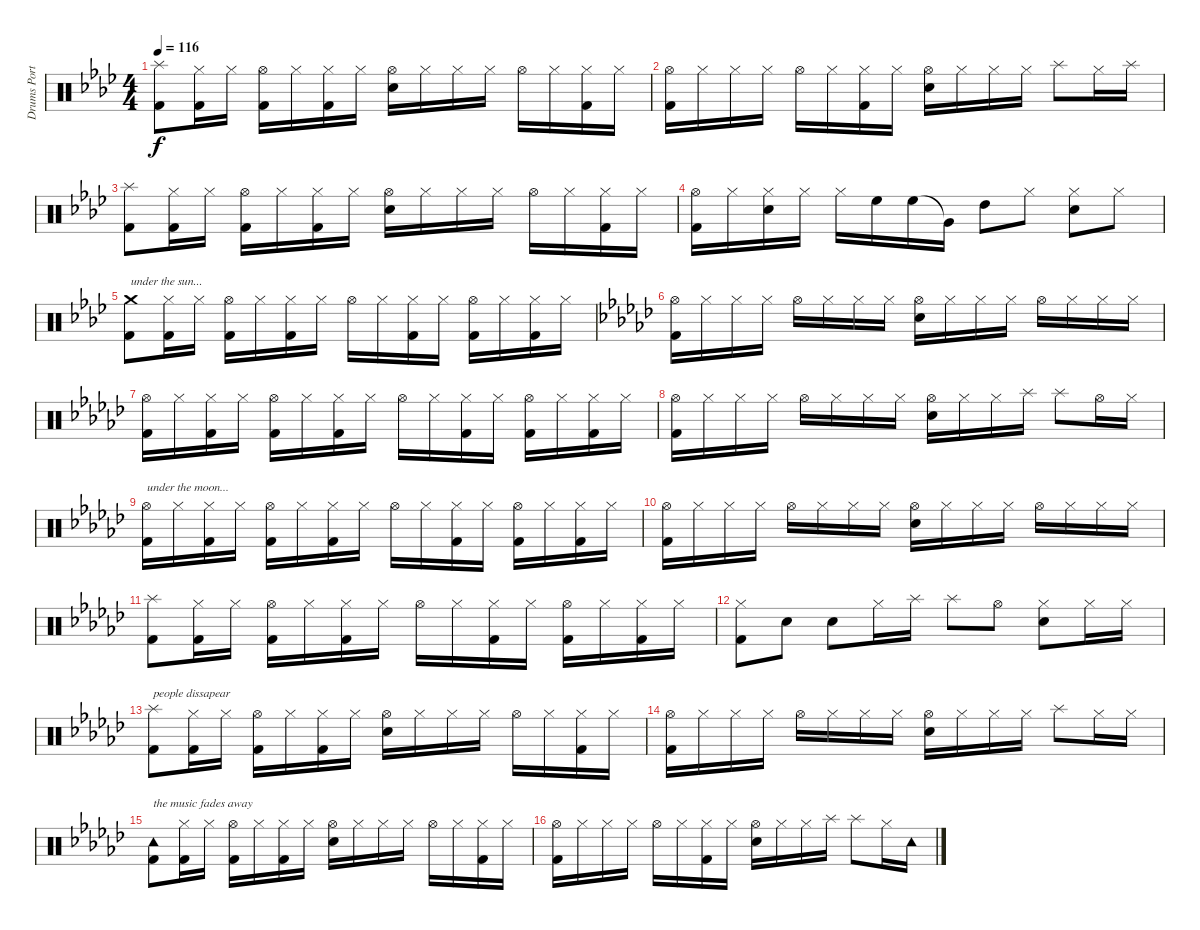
\track ("Drums Portnoy" "Drums Port") {instrument percussion}
\staff {score}
\articulation defaults
\ts (4 4)
\tempo 116
\clef neutral
\ks ab
("Splash (hit)" "Kick (hit) 2").8{dy f} ("Hi-Hat (closed)" "Kick (hit) 2").16 "Hi-Hat (closed)".16 ("Hi-Hat (open)" "Kick (hit) 2").16 "Hi-Hat (closed)".16 ("Hi-Hat (closed)" "Kick (hit) 2").16 "Hi-Hat (closed)".16 ("Hi-Hat (open)" "Snare (hit) 2").16 "Hi-Hat (closed)".16 "Hi-Hat (closed)".16 "Hi-Hat (closed)".16 "Hi-Hat (open)".16 "Hi-Hat (closed)".16 ("Hi-Hat (closed)" "Kick (hit) 2").16 "Hi-Hat (closed)".16 |
("Hi-Hat (open)" "Kick (hit) 2").16 "Hi-Hat (closed)".16 "Hi-Hat (closed)".16 "Hi-Hat (closed)".16 "Hi-Hat (open)".16 "Hi-Hat (closed)".16 ("Hi-Hat (closed)" "Kick (hit) 2").16 "Hi-Hat (closed)".16 ("Hi-Hat (open)" "Snare (hit) 2").16 "Hi-Hat (closed)".16 "Hi-Hat (closed)".16 "Hi-Hat (closed)".16 "Splash (hit)".8 "Hi-Hat (closed)".16 "Splash (hit)".16 |
("Splash (hit)" "Kick (hit) 2").8 ("Hi-Hat (closed)" "Kick (hit) 2").16 "Hi-Hat (closed)".16 ("Hi-Hat (open)" "Kick (hit) 2").16 "Hi-Hat (closed)".16 ("Hi-Hat (closed)" "Kick (hit) 2").16 "Hi-Hat (closed)".16 ("Hi-Hat (open)" "Snare (hit) 2").16 "Hi-Hat (closed)".16 "Hi-Hat (closed)".16 "Hi-Hat (closed)".16 "Hi-Hat (open)".16 "Hi-Hat (closed)".16 ("Hi-Hat (closed)" "Kick (hit) 2").16 "Hi-Hat (closed)".16 |
("Hi-Hat (open)" "Kick (hit) 2").16 "Hi-Hat (closed)".16 ("Hi-Hat (closed)" "Snare (hit) 2").16 "Hi-Hat (closed)".16 "Hi-Hat (closed)".16 "High Floor Tom (hit)".16 "High Floor Tom (hit)".16 "Very Low Tom (hit)"{t}.16 "High Tom (hit)".8 "Hi-Hat (closed)".8 ("Hi-Hat (closed)" "Snare (hit) 2").8 "Hi-Hat (closed)".8 |
("Crash medium (hit)" "Kick (hit) 2").8{txt "under the sun..."} ("Hi-Hat (closed)" "Kick (hit) 2").16 "Hi-Hat (closed)".16 ("Hi-Hat (open)" "Kick (hit) 2").16 "Hi-Hat (closed)".16 ("Hi-Hat (closed)" "Kick (hit) 2").16 "Hi-Hat (closed)".16 "Hi-Hat (open)".16 "Hi-Hat (closed)".16 ("Hi-Hat (closed)" "Kick (hit) 2").16 "Hi-Hat (closed)".16 ("Hi-Hat (open)" "Kick (hit) 2").16 "Hi-Hat (closed)".16 ("Hi-Hat (closed)" "Kick (hit) 2").16 "Hi-Hat (closed)".16 |
\ks gb
("Hi-Hat (open)" "Kick (hit) 2").16 "Hi-Hat (closed)".16 "Hi-Hat (closed)".16 "Hi-Hat (closed)".16 "Hi-Hat (open)".16 "Hi-Hat (closed)".16 "Hi-Hat (closed)".16 "Hi-Hat (closed)".16 ("Hi-Hat (open)" "Snare (hit) 2").16 "Hi-Hat (closed)".16 "Hi-Hat (closed)".16 "Hi-Hat (closed)".16 "Hi-Hat (open)".16 "Hi-Hat (closed)".16 "Hi-Hat (closed)".16 "Hi-Hat (closed)".16 |
("Hi-Hat (open)" "Kick (hit) 2").16 "Hi-Hat (closed)".16 ("Hi-Hat (closed)" "Kick (hit) 2").16 "Hi-Hat (closed)".16 ("Hi-Hat (open)" "Kick (hit) 2").16 "Hi-Hat (closed)".16 ("Hi-Hat (closed)" "Kick (hit) 2").16 "Hi-Hat (closed)".16 "Hi-Hat (open)".16 "Hi-Hat (closed)".16 ("Hi-Hat (closed)" "Kick (hit) 2").16 "Hi-Hat (closed)".16 ("Hi-Hat (open)" "Kick (hit) 2").16 "Hi-Hat (closed)".16 ("Hi-Hat (closed)" "Kick (hit) 2").16 "Hi-Hat (closed)".16 |
("Hi-Hat (open)" "Kick (hit) 2").16 "Hi-Hat (closed)".16 "Hi-Hat (closed)".16 "Hi-Hat (closed)".16 "Hi-Hat (open)".16 "Hi-Hat (closed)".16 "Hi-Hat (closed)".16 "Hi-Hat (closed)".16 ("Hi-Hat (open)" "Snare (hit) 2").16 "Hi-Hat (closed)".16 "Hi-Hat (closed)".16 "Splash (hit)".16 "Splash (hit)".8 "Hi-Hat (open)".16 "Hi-Hat (closed)".16 |
("Hi-Hat (open)" "Kick (hit) 2").16{txt "under the moon..."} "Hi-Hat (closed)".16 ("Hi-Hat (closed)" "Kick (hit) 2").16 "Hi-Hat (closed)".16 ("Hi-Hat (open)" "Kick (hit) 2").16 "Hi-Hat (closed)".16 ("Hi-Hat (closed)" "Kick (hit) 2").16 "Hi-Hat (closed)".16 "Hi-Hat (open)".16 "Hi-Hat (closed)".16 ("Hi-Hat (closed)" "Kick (hit) 2").16 "Hi-Hat (closed)".16 ("Hi-Hat (open)" "Kick (hit) 2").16 "Hi-Hat (closed)".16 ("Hi-Hat (closed)" "Kick (hit) 2").16 "Hi-Hat (closed)".16 |
("Hi-Hat (open)" "Kick (hit) 2").16 "Hi-Hat (closed)".16 "Hi-Hat (closed)".16 "Hi-Hat (closed)".16 "Hi-Hat (open)".16 "Hi-Hat (closed)".16 "Hi-Hat (closed)".16 "Hi-Hat (closed)".16 ("Hi-Hat (open)" "Snare (hit) 2").16 "Hi-Hat (closed)".16 "Hi-Hat (closed)".16 "Hi-Hat (closed)".16 "Hi-Hat (open)".16 "Hi-Hat (closed)".16 "Hi-Hat (closed)".16 "Hi-Hat (closed)".16 |
("Splash (hit)" "Kick (hit) 2").8 ("Hi-Hat (closed)" "Kick (hit) 2").16 "Hi-Hat (closed)".16 ("Hi-Hat (open)" "Kick (hit) 2").16 "Hi-Hat (closed)".16 ("Hi-Hat (closed)" "Kick (hit) 2").16 "Hi-Hat (closed)".16 "Hi-Hat (open)".16 "Hi-Hat (closed)".16 ("Hi-Hat (closed)" "Kick (hit) 2").16 "Hi-Hat (closed)".16 ("Hi-Hat (open)" "Kick (hit) 2").16 "Hi-Hat (closed)".16 ("Hi-Hat (closed)" "Kick (hit) 2").16 "Hi-Hat (closed)".16 |
("Hi-Hat (closed)" "Kick (hit) 2").8 "Snare (hit) 2".8 "Snare (hit) 2".8 "Hi-Hat (closed)".16 "Splash (hit)".16 "Splash (hit)".8 "Hi-Hat (open)".8 ("Hi-Hat (closed)" "Snare (hit) 2").8 "Hi-Hat (closed)".16 "Hi-Hat (closed)".16 |
("Splash (hit)" "Kick (hit) 2").8{txt "people dissapear"} ("Hi-Hat (closed)" "Kick (hit) 2").16 "Hi-Hat (closed)".16 ("Hi-Hat (open)" "Kick (hit) 2").16 "Hi-Hat (closed)".16 ("Hi-Hat (closed)" "Kick (hit) 2").16 "Hi-Hat (closed)".16 ("Hi-Hat (open)" "Snare (hit) 2").16 "Hi-Hat (closed)".16 "Hi-Hat (closed)".16 "Hi-Hat (closed)".16 "Hi-Hat (open)".16 "Hi-Hat (closed)".16 ("Hi-Hat (closed)" "Kick (hit) 2").16 "Hi-Hat (closed)".16 |
("Hi-Hat (open)" "Kick (hit) 2").16 "Hi-Hat (closed)".16 "Hi-Hat (closed)".16 "Hi-Hat (closed)".16 "Hi-Hat (open)".16 "Hi-Hat (closed)".16 "Hi-Hat (closed)".16 "Hi-Hat (closed)".16 ("Hi-Hat (open)" "Snare (hit) 2").16 "Hi-Hat (closed)".16 "Hi-Hat (closed)".16 "Hi-Hat (closed)".16 "Splash (hit)".8 "Hi-Hat (closed)".16 "Hi-Hat (closed)".16 |
("Tambourine (hit)" "Kick (hit) 2").8{txt "the music fades away"} ("Hi-Hat (closed)" "Kick (hit) 2").16 "Hi-Hat (closed)".16 ("Hi-Hat (open)" "Kick (hit) 2").16 "Hi-Hat (closed)".16 ("Hi-Hat (closed)" "Kick (hit) 2").16 "Hi-Hat (closed)".16 ("Hi-Hat (open)" "Snare (hit) 2").16 "Hi-Hat (closed)".16 "Hi-Hat (closed)".16 "Hi-Hat (closed)".16 "Hi-Hat (open)".16 "Hi-Hat (closed)".16 ("Hi-Hat (closed)" "Kick (hit) 2").16 "Hi-Hat (closed)".16 |
("Hi-Hat (open)" "Kick (hit) 2").16 "Hi-Hat (closed)".16 "Hi-Hat (closed)".16 "Hi-Hat (closed)".16 "Hi-Hat (open)".16 "Hi-Hat (closed)".16 ("Hi-Hat (closed)" "Kick (hit) 2").16 "Hi-Hat (closed)".16 ("Hi-Hat (open)" "Snare (hit) 2").16 "Hi-Hat (closed)".16 "Hi-Hat (closed)".16 "Splash (hit)".16 "Splash (hit)".8 "Hi-Hat (closed)".16 "Tambourine (hit)".16
